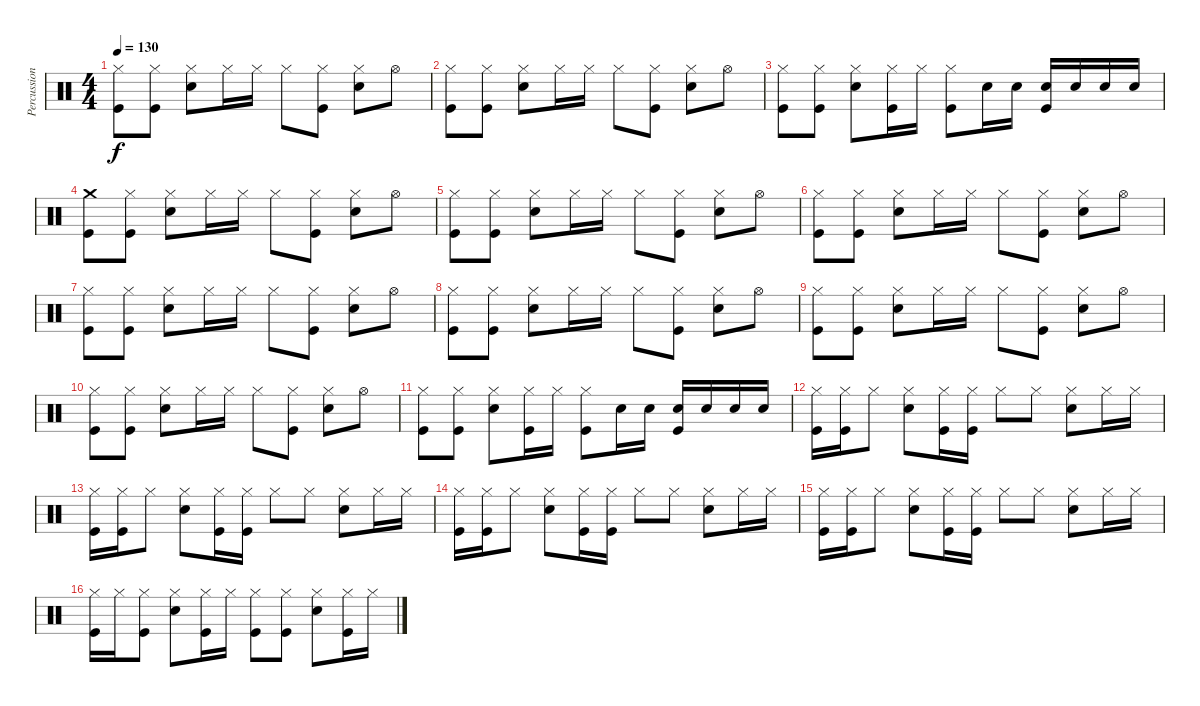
\track ("Percussion" "Percussion") {instrument percussion}
\staff {score}
\articulation defaults
\ts (4 4)
\tempo 130
\clef neutral
\ks c
("Hi-Hat (closed)" "Kick (hit)").8{dy f} ("Hi-Hat (closed)" "Kick (hit)").8 ("Hi-Hat (closed)" "Electric Snare (hit)").8 "Hi-Hat (closed)".16 "Hi-Hat (closed)".16 "Hi-Hat (closed)".8 ("Hi-Hat (closed)" "Kick (hit)").8 ("Hi-Hat (closed)" "Electric Snare (hit)").8 "Hi-Hat (open)".8 |
("Hi-Hat (closed)" "Kick (hit)").8 ("Hi-Hat (closed)" "Kick (hit)").8 ("Hi-Hat (closed)" "Electric Snare (hit)").8 "Hi-Hat (closed)".16 "Hi-Hat (closed)".16 "Hi-Hat (closed)".8 ("Hi-Hat (closed)" "Kick (hit)").8 ("Hi-Hat (closed)" "Electric Snare (hit)").8 "Hi-Hat (open)".8 |
("Hi-Hat (closed)" "Kick (hit)").8 ("Hi-Hat (closed)" "Kick (hit)").8 ("Hi-Hat (closed)" "Electric Snare (hit)").8 ("Hi-Hat (closed)" "Kick (hit)").16 "Hi-Hat (closed)".16 ("Hi-Hat (closed)" "Kick (hit)").8 "Electric Snare (hit)".16 "Electric Snare (hit)".16 ("Electric Snare (hit)" "Kick (hit)").16 "Electric Snare (hit)".16 "Electric Snare (hit)".16 "Electric Snare (hit)".16 |
("Crash medium (hit)" "Kick (hit)").8 ("Hi-Hat (closed)" "Kick (hit)").8 ("Hi-Hat (closed)" "Electric Snare (hit)").8 "Hi-Hat (closed)".16 "Hi-Hat (closed)".16 "Hi-Hat (closed)".8 ("Hi-Hat (closed)" "Kick (hit)").8 ("Hi-Hat (closed)" "Electric Snare (hit)").8 "Hi-Hat (open)".8 |
("Hi-Hat (closed)" "Kick (hit)").8 ("Hi-Hat (closed)" "Kick (hit)").8 ("Hi-Hat (closed)" "Electric Snare (hit)").8 "Hi-Hat (closed)".16 "Hi-Hat (closed)".16 "Hi-Hat (closed)".8 ("Hi-Hat (closed)" "Kick (hit)").8 ("Hi-Hat (closed)" "Electric Snare (hit)").8 "Hi-Hat (open)".8 |
("Hi-Hat (closed)" "Kick (hit)").8 ("Hi-Hat (closed)" "Kick (hit)").8 ("Hi-Hat (closed)" "Electric Snare (hit)").8 "Hi-Hat (closed)".16 "Hi-Hat (closed)".16 "Hi-Hat (closed)".8 ("Hi-Hat (closed)" "Kick (hit)").8 ("Hi-Hat (closed)" "Electric Snare (hit)").8 "Hi-Hat (open)".8 |
("Hi-Hat (closed)" "Kick (hit)").8 ("Hi-Hat (closed)" "Kick (hit)").8 ("Hi-Hat (closed)" "Electric Snare (hit)").8 "Hi-Hat (closed)".16 "Hi-Hat (closed)".16 "Hi-Hat (closed)".8 ("Hi-Hat (closed)" "Kick (hit)").8 ("Hi-Hat (closed)" "Electric Snare (hit)").8 "Hi-Hat (open)".8 |
("Hi-Hat (closed)" "Kick (hit)").8 ("Hi-Hat (closed)" "Kick (hit)").8 ("Hi-Hat (closed)" "Electric Snare (hit)").8 "Hi-Hat (closed)".16 "Hi-Hat (closed)".16 "Hi-Hat (closed)".8 ("Hi-Hat (closed)" "Kick (hit)").8 ("Hi-Hat (closed)" "Electric Snare (hit)").8 "Hi-Hat (open)".8 |
("Hi-Hat (closed)" "Kick (hit)").8 ("Hi-Hat (closed)" "Kick (hit)").8 ("Hi-Hat (closed)" "Electric Snare (hit)").8 "Hi-Hat (closed)".16 "Hi-Hat (closed)".16 "Hi-Hat (closed)".8 ("Hi-Hat (closed)" "Kick (hit)").8 ("Hi-Hat (closed)" "Electric Snare (hit)").8 "Hi-Hat (open)".8 |
("Hi-Hat (closed)" "Kick (hit)").8 ("Hi-Hat (closed)" "Kick (hit)").8 ("Hi-Hat (closed)" "Electric Snare (hit)").8 "Hi-Hat (closed)".16 "Hi-Hat (closed)".16 "Hi-Hat (closed)".8 ("Hi-Hat (closed)" "Kick (hit)").8 ("Hi-Hat (closed)" "Electric Snare (hit)").8 "Hi-Hat (open)".8 |
("Hi-Hat (closed)" "Kick (hit)").8 ("Hi-Hat (closed)" "Kick (hit)").8 ("Hi-Hat (closed)" "Electric Snare (hit)").8 ("Hi-Hat (closed)" "Kick (hit)").16 "Hi-Hat (closed)".16 ("Hi-Hat (closed)" "Kick (hit)").8 "Electric Snare (hit)".16 "Electric Snare (hit)".16 ("Electric Snare (hit)" "Kick (hit)").16 "Electric Snare (hit)".16 "Electric Snare (hit)".16 "Electric Snare (hit)".16 |
("Hi-Hat (closed)" "Kick (hit)").16 ("Hi-Hat (closed)" "Kick (hit)").16 "Hi-Hat (closed)".8 ("Hi-Hat (closed)" "Electric Snare (hit)").8 ("Hi-Hat (closed)" "Kick (hit)").16 ("Hi-Hat (closed)" "Kick (hit)").16 "Hi-Hat (closed)".8 "Hi-Hat (closed)".8 ("Hi-Hat (closed)" "Electric Snare (hit)").8 "Hi-Hat (closed)".16 "Hi-Hat (closed)".16 |
("Hi-Hat (closed)" "Kick (hit)").16 ("Hi-Hat (closed)" "Kick (hit)").16 "Hi-Hat (closed)".8 ("Hi-Hat (closed)" "Electric Snare (hit)").8 ("Hi-Hat (closed)" "Kick (hit)").16 ("Hi-Hat (closed)" "Kick (hit)").16 "Hi-Hat (closed)".8 "Hi-Hat (closed)".8 ("Hi-Hat (closed)" "Electric Snare (hit)").8 "Hi-Hat (closed)".16 "Hi-Hat (closed)".16 |
("Hi-Hat (closed)" "Kick (hit)").16 ("Hi-Hat (closed)" "Kick (hit)").16 "Hi-Hat (closed)".8 ("Hi-Hat (closed)" "Electric Snare (hit)").8 ("Hi-Hat (closed)" "Kick (hit)").16 ("Hi-Hat (closed)" "Kick (hit)").16 "Hi-Hat (closed)".8 "Hi-Hat (closed)".8 ("Hi-Hat (closed)" "Electric Snare (hit)").8 "Hi-Hat (closed)".16 "Hi-Hat (closed)".16 |
("Hi-Hat (closed)" "Kick (hit)").16 ("Hi-Hat (closed)" "Kick (hit)").16 "Hi-Hat (closed)".8 ("Hi-Hat (closed)" "Electric Snare (hit)").8 ("Hi-Hat (closed)" "Kick (hit)").16 ("Hi-Hat (closed)" "Kick (hit)").16 "Hi-Hat (closed)".8 "Hi-Hat (closed)".8 ("Hi-Hat (closed)" "Electric Snare (hit)").8 "Hi-Hat (closed)".16 "Hi-Hat (closed)".16 |
("Hi-Hat (closed)" "Kick (hit)").16 "Hi-Hat (closed)".16 ("Hi-Hat (closed)" "Kick (hit)").8 ("Hi-Hat (closed)" "Electric Snare (hit)").8 ("Hi-Hat (closed)" "Kick (hit)").16 "Hi-Hat (closed)".16 ("Hi-Hat (closed)" "Kick (hit)").8 ("Hi-Hat (closed)" "Kick (hit)").8 ("Hi-Hat (closed)" "Electric Snare (hit)").8 ("Hi-Hat (closed)" "Kick (hit)").16 "Hi-Hat (closed)".16
